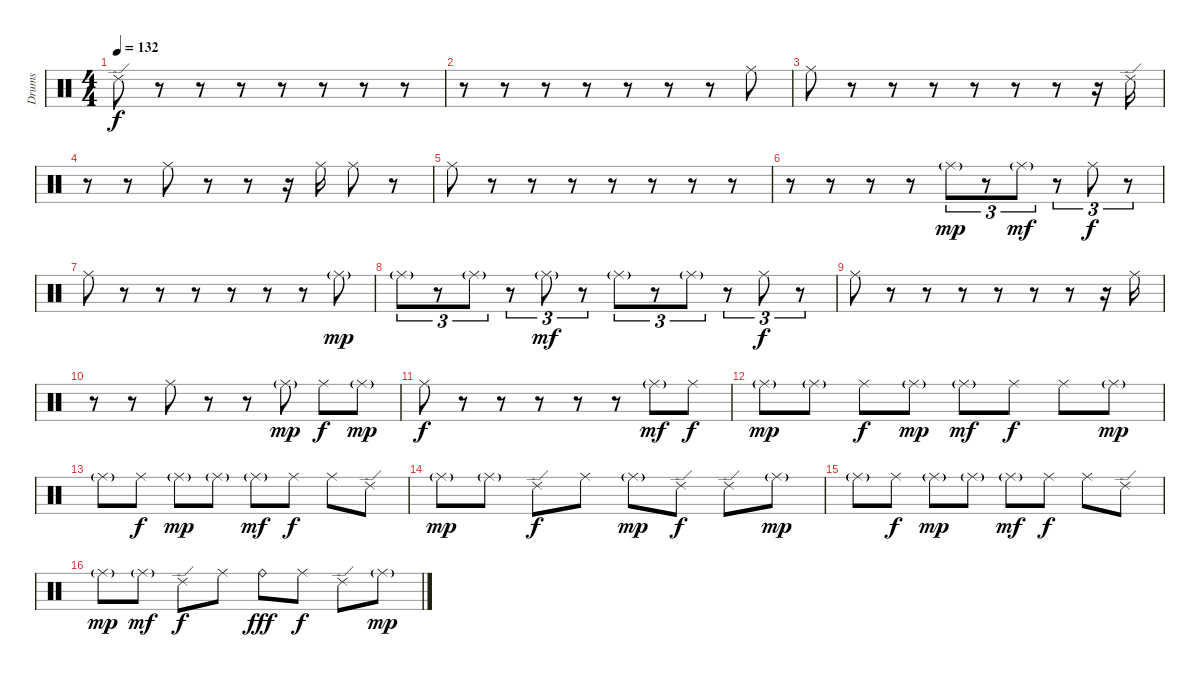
\track ("Drums" "Drums") {instrument percussion}
\staff {score}
\articulation defaults
\ts (4 4)
\tempo 132
\clef neutral
\ks c "Ride (edge) 2".8{dy f volume 9}
r.8 r.8 r.8 r.8 r.8 r.8 r.8 |
r.8 r.8 r.8 r.8 r.8 r.8 r.8 "Ride (middle)".8 |
"Ride (middle)".8 r.8 r.8 r.8 r.8 r.8 r.8 r.16 "Ride (edge) 2".16 |
r.8 r.8 "Ride (middle)".8 r.8 r.8 r.16 "Ride (middle)".16 "Ride (middle)".8 r.8 |
"Ride (middle)".8 r.8 r.8 r.8 r.8 r.8 r.8 r.8 |
r.8 r.8 r.8 r.8 "Ride (middle)"{g}.8{tu (3 2) dy mp} r.8{tu (3 2)} "Ride (middle)"{g}.8{tu (3 2) dy mf} r.8{tu (3 2)} "Ride (middle)".8{tu (3 2) dy f} r.8{tu (3 2)} |
"Ride (middle)".8 r.8 r.8 r.8 r.8 r.8 r.8 "Ride (middle)"{g}.8{dy mp} |
"Ride (middle)"{g}.8{tu (3 2)} r.8{tu (3 2)} "Ride (middle)"{g}.8{tu (3 2)} r.8{tu (3 2)} "Ride (middle)"{g}.8{tu (3 2) dy mf} r.8{tu (3 2)} "Ride (middle)"{g}.8{tu (3 2)} r.8{tu (3 2)} "Ride (middle)"{g}.8{tu (3 2)} r.8{tu (3 2)} "Ride (middle)".8{tu (3 2) dy f} r.8{tu (3 2)} |
"Ride (middle)".8 r.8 r.8 r.8 r.8 r.8 r.8 r.16 "Ride (middle)".16 |
r.8 r.8 "Ride (middle)".8 r.8 r.8 "Ride (middle)"{g}.8{dy mp} "Ride (middle)".8{dy f} "Ride (middle)"{g}.8{dy mp} |
"Ride (middle)".8{dy f} r.8 r.8 r.8 r.8 r.8 "Ride (middle)"{g}.8{dy mf} "Ride (middle)".8{dy f} |
"Ride (middle)"{g}.8{dy mp} "Ride (middle)"{g}.8 "Ride (middle)".8{dy f} "Ride (middle)"{g}.8{dy mp} "Ride (middle)"{g}.8{dy mf} "Ride (middle)".8{dy f} "Ride (middle)".8 "Ride (middle)"{g}.8{dy mp} |
"Ride (middle)"{g}.8 "Ride (middle)".8{dy f} "Ride (middle)"{g}.8{dy mp} "Ride (middle)"{g}.8 "Ride (middle)"{g}.8{dy mf} "Ride (middle)".8{dy f} "Ride (middle)".8 "Ride (edge) 2".8 |
"Ride (middle)"{g}.8{dy mp} "Ride (middle)"{g}.8 "Ride (edge) 2".8{dy f} "Ride (middle)".8 "Ride (middle)"{g}.8{dy mp} "Ride (edge) 2".8{dy f} "Ride (edge) 2".8 "Ride (middle)"{g}.8{dy mp} |
"Ride (middle)"{g}.8 "Ride (middle)".8{dy f} "Ride (middle)"{g}.8{dy mp} "Ride (middle)"{g}.8 "Ride (middle)"{g}.8{dy mf} "Ride (middle)".8{dy f} "Ride (middle)".8 "Ride (edge) 2".8 |
"Ride (middle)"{g}.8{dy mp} "Ride (middle)"{g}.8{dy mf} "Ride (edge) 2".8{dy f} "Ride (middle)".8 "Ride (bell)".8{dy fff} "Ride (middle)".8{dy f} "Ride (edge) 2".8 "Ride (middle)"{g}.8{dy mp}
